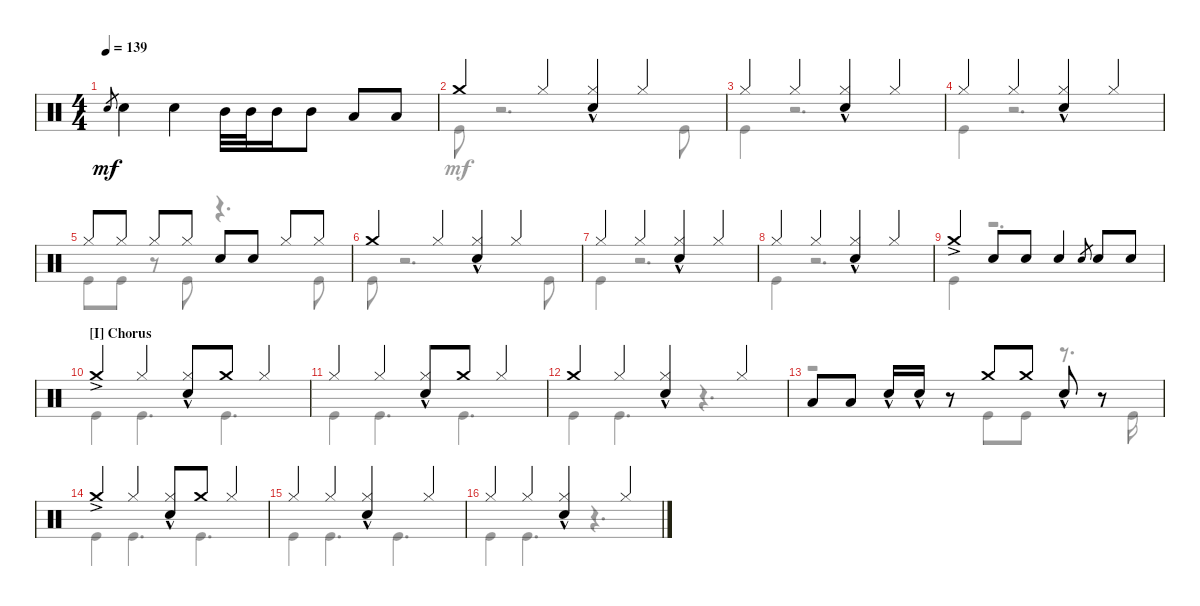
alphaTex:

\defaultSystemsLayout 4
\bracketExtendMode groupsimilarinstruments
\singleTrackTrackNamePolicy hidden
\multiTrackTrackNamePolicy hidden
\firstSystemTrackNameOrientation horizontal
\otherSystemsTrackNameOrientation horizontal
\track ("Nicko McBrain" "Drums") {instrument percussion}
\staff {score}
\articulation defaults
\voice
\ts (4 4)
\tempo 139
\clef neutral
\scale
1.02648
\ks c "Snare (hit) 2".8{gr dy mf} "Snare (hit) 2".4 "Snare (hit) 2".4 "Mid Tom (hit)".32 "Mid Tom (hit)".32 "Mid Tom (hit)".16 "Mid Tom (hit)".8 "Low Tom (hit)".8 "Low Tom (hit)".8
|
\scale
0.973518 "Crash medium (hit)".4 "Hi-Hat (closed)".4 ("Hi-Hat (closed)" "Snare (hit) 2"{hac}).4 "Hi-Hat (closed)".4 |
\scale
1.02648 "Hi-Hat (closed)".4 "Hi-Hat (closed)".4 ("Hi-Hat (closed)" "Snare (hit) 2"{hac}).4 "Hi-Hat (closed)".4 |
\scale
0.973518 "Hi-Hat (closed)".4 "Hi-Hat (closed)".4 ("Hi-Hat (closed)" "Snare (hit) 2"{hac}).4 "Hi-Hat (closed)".4 |
\scale
1.02648 "Hi-Hat (closed)".8 "Hi-Hat (closed)".8 "Hi-Hat (closed)".8 "Hi-Hat (closed)".8 "Snare (hit) 2".8 "Snare (hit) 2".8 "Hi-Hat (closed)".8 "Hi-Hat (closed)".8 |
\scale
0.973518 "Crash medium (hit)".4 "Hi-Hat (closed)".4 ("Hi-Hat (closed)" "Snare (hit) 2"{hac}).4 "Hi-Hat (closed)".4 |
\scale
1.02648 "Hi-Hat (closed)".4 "Hi-Hat (closed)".4 ("Hi-Hat (closed)" "Snare (hit) 2"{hac}).4 "Hi-Hat (closed)".4 |
\scale
0.973518 "Hi-Hat (closed)".4 "Hi-Hat (closed)".4 ("Hi-Hat (closed)" "Snare (hit) 2"{hac}).4 "Hi-Hat (closed)".4 |
\scale
1.02648 "Crash medium (hit)"{ac}.4 "Snare (hit) 2".8 "Snare (hit) 2".8 "Snare (hit) 2".4 "Snare (hit) 2".8{gr} "Snare (hit) 2".8 "Snare (hit) 2".8 |
\section ("I" "Chorus")
\scale
0.973518 "Crash medium (hit)"{ac}.4 "Hi-Hat (closed)".4 ("Snare (hit) 2"{hac} "Hi-Hat (closed)").8 "Crash medium (hit)".8 "Hi-Hat (closed)".4 |
\scale
1.02648 "Hi-Hat (closed)".4 "Hi-Hat (closed)".4 ("Snare (hit) 2"{hac} "Hi-Hat (closed)").8 "Crash medium (hit)".8 "Hi-Hat (closed)".4 |
\scale
0.973518 "Crash medium (hit)".4 "Hi-Hat (closed)".4 ("Snare (hit) 2"{hac} "Hi-Hat (closed)").4 "Hi-Hat (closed)".4 |
\scale
1.02648 "Low Tom (hit)".8 "Low Tom (hit)".8 "Snare (hit) 2"{hac}.16 "Snare (hit) 2"{hac}.16 r.8 "Crash medium (hit)".8 "Crash medium (hit)".8 "Snare (hit) 2"{hac}.8 r.8 |
\scale
0.973518 "Crash medium (hit)"{ac}.4 "Hi-Hat (closed)".4 ("Hi-Hat (closed)" "Snare (hit) 2"{hac}).8 "Crash medium (hit)".8 "Hi-Hat (closed)".4 |
\scale
1.02648 "Hi-Hat (closed)".4 "Hi-Hat (closed)".4 ("Snare (hit) 2"{hac} "Hi-Hat (closed)").4 "Hi-Hat (closed)".4 |
\scale
0.973518 "Hi-Hat (closed)".4 "Hi-Hat (closed)".4 ("Snare (hit) 2"{hac} "Hi-Hat (closed)").4 "Hi-Hat (closed)".4
\voice
\clef neutral
\ottava regular
\simile none
\scale
1.02648
\ks c
|
\scale
0.973518 "Kick (hit)".8 r.2{d} "Kick (hit)".8 |
\scale
1.02648 "Kick (hit)".4 r.2{d} |
\scale
0.973518 "Kick (hit)".4 r.2{d} |
\scale
1.02648 "Kick (hit)".8 "Kick (hit)".8 r.8 "Kick (hit)".8 r.4{d} "Kick (hit)".8 |
\scale
0.973518 "Kick (hit)".8 r.2{d} "Kick (hit)".8 |
\scale
1.02648 "Kick (hit)".4 r.2{d} |
\scale
0.973518 "Kick (hit)".4 r.2{d} |
\scale
1.02648 "Kick (hit)".4 r.2{d} |
\scale
0.973518 "Kick (hit)".4 "Kick (hit)".4{d} "Kick (hit)".4{d} |
\scale
1.02648 "Kick (hit)".4 "Kick (hit)".4{d} "Kick (hit)".4{d} |
\scale
0.973518 "Kick (hit)".4 "Kick (hit)".4{d} r.4{d} |
\scale
1.02648 r.2 "Kick (hit)".8 "Kick (hit)".8 r.8{d} "Kick (hit)".16 |
\scale
0.973518 "Kick (hit)".4 "Kick (hit)".4{d} "Kick (hit)".4{d} |
\scale
1.02648 "Kick (hit)".4 "Kick (hit)".4{d} "Kick (hit)".4{d} |
\scale
0.973518 "Kick (hit)".4 "Kick (hit)".4{d} r.4{d}
